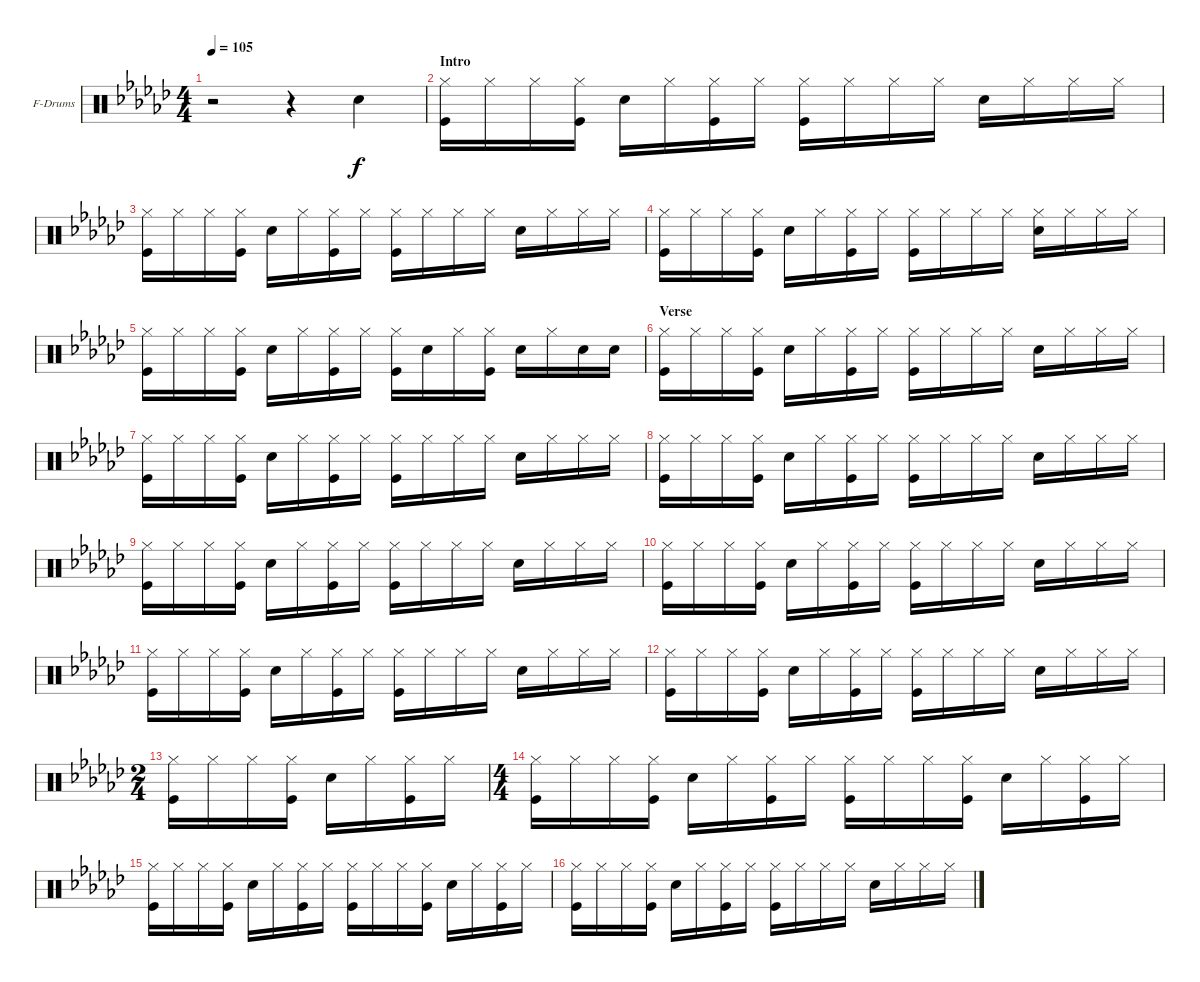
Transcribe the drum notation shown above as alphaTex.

\defaultSystemsLayout 4
\bracketExtendMode groupsimilarinstruments
\firstSystemTrackNameOrientation horizontal
\otherSystemsTrackNameOrientation horizontal
\track ("Fabrizio" "F-Drums") {instrument percussion}
\staff {score}
\articulation defaults
\ts (4 4)
\tempo 105
\clef neutral
\ks ebminor
r.2{dy f} r.4 "Snare (hit) 2".4 |
\section ("" "Intro")
("Kick (hit)" "Hi-Hat (closed)").16 "Hi-Hat (closed)".16 "Hi-Hat (closed)".16 ("Kick (hit)" "Hi-Hat (closed)").16 "Snare (hit) 2".16 "Hi-Hat (closed)".16 ("Kick (hit)" "Hi-Hat (closed)").16 "Hi-Hat (closed)".16 ("Kick (hit)" "Hi-Hat (closed)").16 "Hi-Hat (closed)".16 "Hi-Hat (closed)".16 "Hi-Hat (closed)".16 "Snare (hit) 2".16 "Hi-Hat (closed)".16 "Hi-Hat (closed)".16 "Hi-Hat (closed)".16 |
("Kick (hit)" "Hi-Hat (closed)").16 "Hi-Hat (closed)".16 "Hi-Hat (closed)".16 ("Kick (hit)" "Hi-Hat (closed)").16 "Snare (hit) 2".16 "Hi-Hat (closed)".16 ("Kick (hit)" "Hi-Hat (closed)").16 "Hi-Hat (closed)".16 ("Kick (hit)" "Hi-Hat (closed)").16 "Hi-Hat (closed)".16 "Hi-Hat (closed)".16 "Hi-Hat (closed)".16 "Snare (hit) 2".16 "Hi-Hat (closed)".16 "Hi-Hat (closed)".16 "Hi-Hat (closed)".16 |
("Kick (hit)" "Hi-Hat (closed)").16 "Hi-Hat (closed)".16 "Hi-Hat (closed)".16 ("Kick (hit)" "Hi-Hat (closed)").16 "Snare (hit) 2".16 "Hi-Hat (closed)".16 ("Kick (hit)" "Hi-Hat (closed)").16 "Hi-Hat (closed)".16 ("Kick (hit)" "Hi-Hat (closed)").16 "Hi-Hat (closed)".16 "Hi-Hat (closed)".16 "Hi-Hat (closed)".16 ("Snare (hit) 2" "Hi-Hat (closed)").16 "Hi-Hat (closed)".16 "Hi-Hat (closed)".16 "Hi-Hat (closed)".16 |
("Kick (hit)" "Hi-Hat (closed)").16 "Hi-Hat (closed)".16 "Hi-Hat (closed)".16 ("Kick (hit)" "Hi-Hat (closed)").16 "Snare (hit) 2".16 "Hi-Hat (closed)".16 ("Kick (hit)" "Hi-Hat (closed)").16 "Hi-Hat (closed)".16 ("Kick (hit)" "Hi-Hat (closed)").16 "Snare (hit) 2".16 "Hi-Hat (closed)".16 ("Kick (hit)" "Hi-Hat (closed)").16 "Snare (hit) 2".16 "Hi-Hat (closed)".16 "Snare (hit) 2".16 "Snare (hit) 2".16 |
\section ("" "Verse")
("Kick (hit)" "Hi-Hat (closed)").16 "Hi-Hat (closed)".16 "Hi-Hat (closed)".16 ("Kick (hit)" "Hi-Hat (closed)").16 "Snare (hit) 2".16 "Hi-Hat (closed)".16 ("Kick (hit)" "Hi-Hat (closed)").16 "Hi-Hat (closed)".16 ("Kick (hit)" "Hi-Hat (closed)").16 "Hi-Hat (closed)".16 "Hi-Hat (closed)".16 "Hi-Hat (closed)".16 "Snare (hit) 2".16 "Hi-Hat (closed)".16 "Hi-Hat (closed)".16 "Hi-Hat (closed)".16 |
("Kick (hit)" "Hi-Hat (closed)").16 "Hi-Hat (closed)".16 "Hi-Hat (closed)".16 ("Kick (hit)" "Hi-Hat (closed)").16 "Snare (hit) 2".16 "Hi-Hat (closed)".16 ("Kick (hit)" "Hi-Hat (closed)").16 "Hi-Hat (closed)".16 ("Kick (hit)" "Hi-Hat (closed)").16 "Hi-Hat (closed)".16 "Hi-Hat (closed)".16 "Hi-Hat (closed)".16 "Snare (hit) 2".16 "Hi-Hat (closed)".16 "Hi-Hat (closed)".16 "Hi-Hat (closed)".16 |
("Kick (hit)" "Hi-Hat (closed)").16 "Hi-Hat (closed)".16 "Hi-Hat (closed)".16 ("Kick (hit)" "Hi-Hat (closed)").16 "Snare (hit) 2".16 "Hi-Hat (closed)".16 ("Kick (hit)" "Hi-Hat (closed)").16 "Hi-Hat (closed)".16 ("Kick (hit)" "Hi-Hat (closed)").16 "Hi-Hat (closed)".16 "Hi-Hat (closed)".16 "Hi-Hat (closed)".16 "Snare (hit) 2".16 "Hi-Hat (closed)".16 "Hi-Hat (closed)".16 "Hi-Hat (closed)".16 |
("Kick (hit)" "Hi-Hat (closed)").16 "Hi-Hat (closed)".16 "Hi-Hat (closed)".16 ("Kick (hit)" "Hi-Hat (closed)").16 "Snare (hit) 2".16 "Hi-Hat (closed)".16 ("Kick (hit)" "Hi-Hat (closed)").16 "Hi-Hat (closed)".16 ("Kick (hit)" "Hi-Hat (closed)").16 "Hi-Hat (closed)".16 "Hi-Hat (closed)".16 "Hi-Hat (closed)".16 "Snare (hit) 2".16 "Hi-Hat (closed)".16 "Hi-Hat (closed)".16 "Hi-Hat (closed)".16 |
("Kick (hit)" "Hi-Hat (closed)").16 "Hi-Hat (closed)".16 "Hi-Hat (closed)".16 ("Kick (hit)" "Hi-Hat (closed)").16 "Snare (hit) 2".16 "Hi-Hat (closed)".16 ("Kick (hit)" "Hi-Hat (closed)").16 "Hi-Hat (closed)".16 ("Kick (hit)" "Hi-Hat (closed)").16 "Hi-Hat (closed)".16 "Hi-Hat (closed)".16 "Hi-Hat (closed)".16 "Snare (hit) 2".16 "Hi-Hat (closed)".16 "Hi-Hat (closed)".16 "Hi-Hat (closed)".16 |
("Kick (hit)" "Hi-Hat (closed)").16 "Hi-Hat (closed)".16 "Hi-Hat (closed)".16 ("Kick (hit)" "Hi-Hat (closed)").16 "Snare (hit) 2".16 "Hi-Hat (closed)".16 ("Kick (hit)" "Hi-Hat (closed)").16 "Hi-Hat (closed)".16 ("Kick (hit)" "Hi-Hat (closed)").16 "Hi-Hat (closed)".16 "Hi-Hat (closed)".16 "Hi-Hat (closed)".16 "Snare (hit) 2".16 "Hi-Hat (closed)".16 "Hi-Hat (closed)".16 "Hi-Hat (closed)".16 |
("Kick (hit)" "Hi-Hat (closed)").16 "Hi-Hat (closed)".16 "Hi-Hat (closed)".16 ("Kick (hit)" "Hi-Hat (closed)").16 "Snare (hit) 2".16 "Hi-Hat (closed)".16 ("Kick (hit)" "Hi-Hat (closed)").16 "Hi-Hat (closed)".16 ("Kick (hit)" "Hi-Hat (closed)").16 "Hi-Hat (closed)".16 "Hi-Hat (closed)".16 "Hi-Hat (closed)".16 "Snare (hit) 2".16 "Hi-Hat (closed)".16 "Hi-Hat (closed)".16 "Hi-Hat (closed)".16 |
\ts (2 4)
("Kick (hit)" "Hi-Hat (closed)").16 "Hi-Hat (closed)".16 "Hi-Hat (closed)".16 ("Kick (hit)" "Hi-Hat (closed)").16 "Snare (hit) 2".16 "Hi-Hat (closed)".16 ("Kick (hit)" "Hi-Hat (closed)").16 "Hi-Hat (closed)".16 |
\ts (4 4)
("Kick (hit)" "Hi-Hat (closed)").16 "Hi-Hat (closed)".16 "Hi-Hat (closed)".16 ("Kick (hit)" "Hi-Hat (closed)").16 "Snare (hit) 2".16 "Hi-Hat (closed)".16 ("Kick (hit)" "Hi-Hat (closed)").16 "Hi-Hat (closed)".16 ("Kick (hit)" "Hi-Hat (closed)").16 "Hi-Hat (closed)".16 "Hi-Hat (closed)".16 ("Kick (hit)" "Hi-Hat (closed)").16 "Snare (hit) 2".16 "Hi-Hat (closed)".16 ("Kick (hit)" "Hi-Hat (closed)").16 "Hi-Hat (closed)".16 |
("Kick (hit)" "Hi-Hat (closed)").16 "Hi-Hat (closed)".16 "Hi-Hat (closed)".16 ("Kick (hit)" "Hi-Hat (closed)").16 "Snare (hit) 2".16 "Hi-Hat (closed)".16 ("Kick (hit)" "Hi-Hat (closed)").16 "Hi-Hat (closed)".16 ("Kick (hit)" "Hi-Hat (closed)").16 "Hi-Hat (closed)".16 "Hi-Hat (closed)".16 ("Kick (hit)" "Hi-Hat (closed)").16 "Snare (hit) 2".16 "Hi-Hat (closed)".16 ("Kick (hit)" "Hi-Hat (closed)").16 "Hi-Hat (closed)".16 |
("Kick (hit)" "Hi-Hat (closed)").16 "Hi-Hat (closed)".16 "Hi-Hat (closed)".16 ("Kick (hit)" "Hi-Hat (closed)").16 "Snare (hit) 2".16 "Hi-Hat (closed)".16 ("Kick (hit)" "Hi-Hat (closed)").16 "Hi-Hat (closed)".16 ("Kick (hit)" "Hi-Hat (closed)").16 "Hi-Hat (closed)".16 "Hi-Hat (closed)".16 "Hi-Hat (closed)".16 "Snare (hit) 2".16 "Hi-Hat (closed)".16 "Hi-Hat (closed)".16 "Hi-Hat (closed)".16
